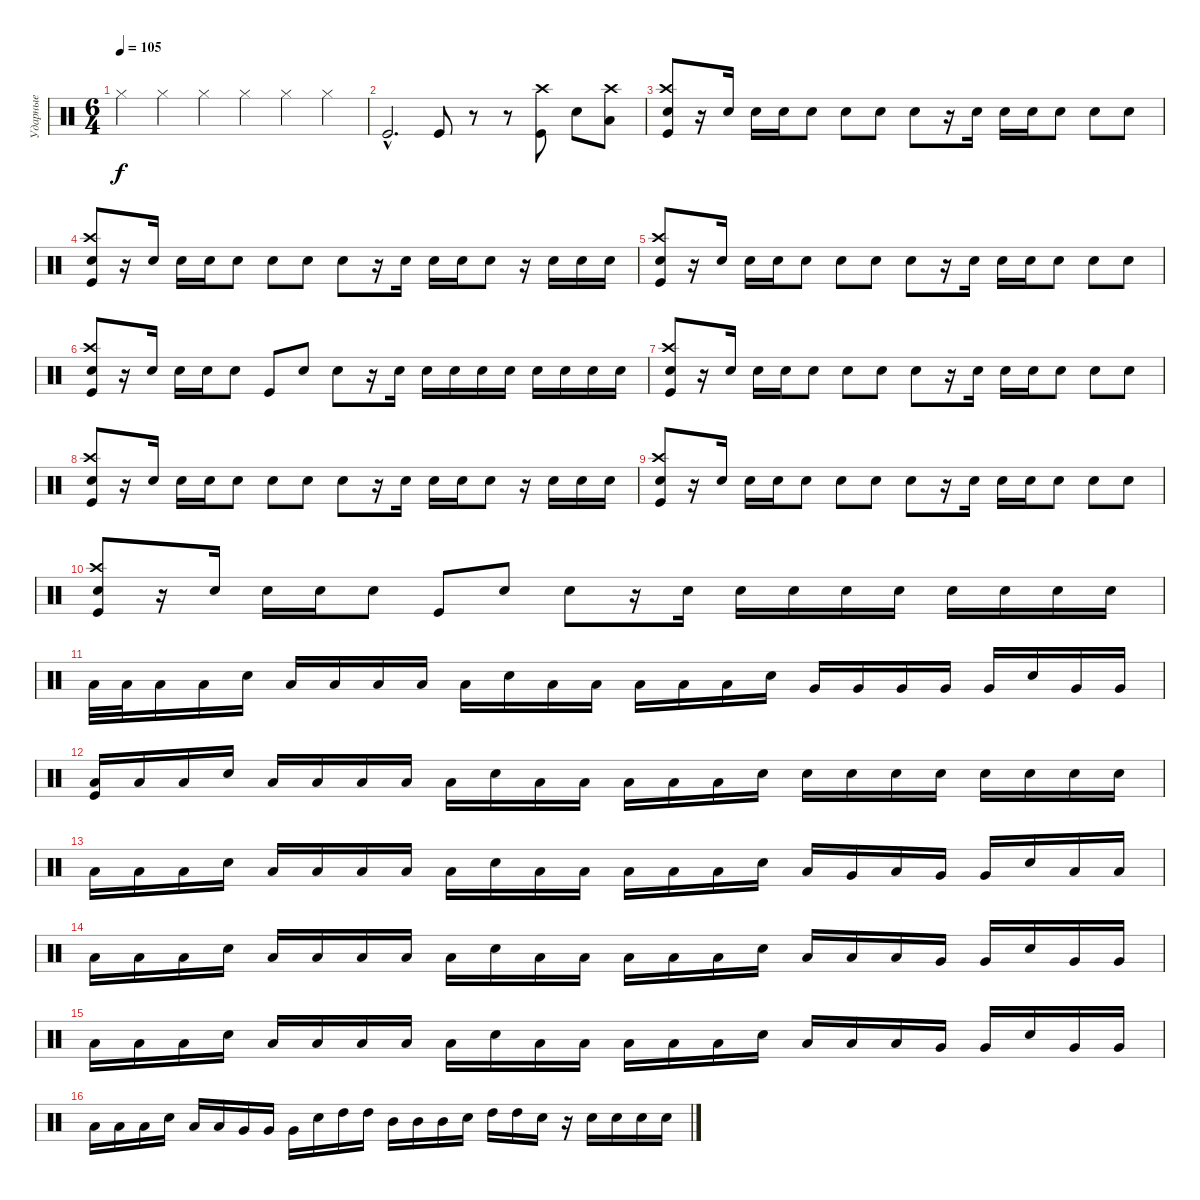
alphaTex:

\track ("Ударные" "Ударные") {instrument percussion}
\staff {score}
\articulation defaults
\ts (6 4)
\tempo 105
\clef neutral
\ks c "Hi-Hat (closed)".4{dy f} "Hi-Hat (closed)".4 "Hi-Hat (closed)".4 "Hi-Hat (closed)".4 "Hi-Hat (closed)".4 "Hi-Hat (closed)".4
|
"Kick (hit)"{hac}.2{d} "Kick (hit)".8 r.8 r.8 ("Crash high (hit)" "Kick (hit)").8 "Electric Snare (hit)".8 ("Crash high (hit)" "Low Tom (hit)").8 |
("Crash high (hit)" "Electric Snare (hit)" "Kick (hit)").8 r.16 "Electric Snare (hit)".16 "Electric Snare (hit)".16 "Electric Snare (hit)".16 "Electric Snare (hit)".8 "Electric Snare (hit)".8 "Electric Snare (hit)".8 "Electric Snare (hit)".8 r.16 "Electric Snare (hit)".16 "Electric Snare (hit)".16 "Electric Snare (hit)".16 "Electric Snare (hit)".8 "Electric Snare (hit)".8 "Electric Snare (hit)".8 |
("Crash high (hit)" "Electric Snare (hit)" "Kick (hit)").8 r.16 "Electric Snare (hit)".16 "Electric Snare (hit)".16 "Electric Snare (hit)".16 "Electric Snare (hit)".8 "Electric Snare (hit)".8 "Electric Snare (hit)".8 "Electric Snare (hit)".8 r.16 "Electric Snare (hit)".16 "Electric Snare (hit)".16 "Electric Snare (hit)".16 "Electric Snare (hit)".8 r.16 "Electric Snare (hit)".16 "Electric Snare (hit)".16 "Electric Snare (hit)".16 |
("Crash high (hit)" "Electric Snare (hit)" "Kick (hit)").8 r.16 "Electric Snare (hit)".16 "Electric Snare (hit)".16 "Electric Snare (hit)".16 "Electric Snare (hit)".8 "Electric Snare (hit)".8 "Electric Snare (hit)".8 "Electric Snare (hit)".8 r.16 "Electric Snare (hit)".16 "Electric Snare (hit)".16 "Electric Snare (hit)".16 "Electric Snare (hit)".8 "Electric Snare (hit)".8 "Electric Snare (hit)".8 |
("Crash high (hit)" "Electric Snare (hit)" "Kick (hit)").8 r.16 "Electric Snare (hit)".16 "Electric Snare (hit)".16 "Electric Snare (hit)".16 "Electric Snare (hit)".8 "Kick (hit)".8 "Electric Snare (hit)".8 "Electric Snare (hit)".8 r.16 "Electric Snare (hit)".16 "Electric Snare (hit)".16 "Electric Snare (hit)".16 "Electric Snare (hit)".16 "Electric Snare (hit)".16 "Electric Snare (hit)".16 "Electric Snare (hit)".16 "Electric Snare (hit)".16 "Electric Snare (hit)".16 |
("Crash high (hit)" "Electric Snare (hit)" "Kick (hit)").8 r.16 "Electric Snare (hit)".16 "Electric Snare (hit)".16 "Electric Snare (hit)".16 "Electric Snare (hit)".8 "Electric Snare (hit)".8 "Electric Snare (hit)".8 "Electric Snare (hit)".8 r.16 "Electric Snare (hit)".16 "Electric Snare (hit)".16 "Electric Snare (hit)".16 "Electric Snare (hit)".8 "Electric Snare (hit)".8 "Electric Snare (hit)".8 |
("Crash high (hit)" "Electric Snare (hit)" "Kick (hit)").8 r.16 "Electric Snare (hit)".16 "Electric Snare (hit)".16 "Electric Snare (hit)".16 "Electric Snare (hit)".8 "Electric Snare (hit)".8 "Electric Snare (hit)".8 "Electric Snare (hit)".8 r.16 "Electric Snare (hit)".16 "Electric Snare (hit)".16 "Electric Snare (hit)".16 "Electric Snare (hit)".8 r.16 "Electric Snare (hit)".16 "Electric Snare (hit)".16 "Electric Snare (hit)".16 |
("Crash high (hit)" "Electric Snare (hit)" "Kick (hit)").8 r.16 "Electric Snare (hit)".16 "Electric Snare (hit)".16 "Electric Snare (hit)".16 "Electric Snare (hit)".8 "Electric Snare (hit)".8 "Electric Snare (hit)".8 "Electric Snare (hit)".8 r.16 "Electric Snare (hit)".16 "Electric Snare (hit)".16 "Electric Snare (hit)".16 "Electric Snare (hit)".8 "Electric Snare (hit)".8 "Electric Snare (hit)".8 |
("Crash high (hit)" "Electric Snare (hit)" "Kick (hit)").8 r.16 "Electric Snare (hit)".16 "Electric Snare (hit)".16 "Electric Snare (hit)".16 "Electric Snare (hit)".8 "Kick (hit)".8 "Electric Snare (hit)".8 "Electric Snare (hit)".8 r.16 "Electric Snare (hit)".16 "Electric Snare (hit)".16 "Electric Snare (hit)".16 "Electric Snare (hit)".16 "Electric Snare (hit)".16 "Electric Snare (hit)".16 "Electric Snare (hit)".16 "Electric Snare (hit)".16 "Electric Snare (hit)".16 |
"Low Tom (hit)".32 "Low Tom (hit)".32 "Low Tom (hit)".16 "Low Tom (hit)".16 "Electric Snare (hit)".16 "Low Tom (hit)".16 "Low Tom (hit)".16 "Low Tom (hit)".16 "Low Tom (hit)".16 "Low Tom (hit)".16 "Electric Snare (hit)".16 "Low Tom (hit)".16 "Low Tom (hit)".16 "Low Tom (hit)".16 "Low Tom (hit)".16 "Low Tom (hit)".16 "Electric Snare (hit)".16 "Very Low Tom (hit)".16 "Very Low Tom (hit)".16 "Very Low Tom (hit)".16 "Very Low Tom (hit)".16 "Very Low Tom (hit)".16 "Electric Snare (hit)".16 "Very Low Tom (hit)".16 "Very Low Tom (hit)".16 |
("Low Tom (hit)" "Kick (hit)").16 "Low Tom (hit)".16 "Low Tom (hit)".16 "Electric Snare (hit)".16 "Low Tom (hit)".16 "Low Tom (hit)".16 "Low Tom (hit)".16 "Low Tom (hit)".16 "Low Tom (hit)".16 "Electric Snare (hit)".16 "Low Tom (hit)".16 "Low Tom (hit)".16 "Low Tom (hit)".16 "Low Tom (hit)".16 "Low Tom (hit)".16 "Electric Snare (hit)".16 "Electric Snare (hit)".16 "Electric Snare (hit)".16 "Electric Snare (hit)".16 "Electric Snare (hit)".16 "Electric Snare (hit)".16 "Electric Snare (hit)".16 "Electric Snare (hit)".16 "Electric Snare (hit)".16 |
"Low Tom (hit)".16 "Low Tom (hit)".16 "Low Tom (hit)".16 "Electric Snare (hit)".16 "Low Tom (hit)".16 "Low Tom (hit)".16 "Low Tom (hit)".16 "Low Tom (hit)".16 "Low Tom (hit)".16 "Electric Snare (hit)".16 "Low Tom (hit)".16 "Low Tom (hit)".16 "Low Tom (hit)".16 "Low Tom (hit)".16 "Low Tom (hit)".16 "Electric Snare (hit)".16 "Low Tom (hit)".16 "Very Low Tom (hit)".16 "Low Tom (hit)".16 "Very Low Tom (hit)".16 "Very Low Tom (hit)".16 "Electric Snare (hit)".16 "Low Tom (hit)".16 "Low Tom (hit)".16 |
"Low Tom (hit)".16 "Low Tom (hit)".16 "Low Tom (hit)".16 "Electric Snare (hit)".16 "Low Tom (hit)".16 "Low Tom (hit)".16 "Low Tom (hit)".16 "Low Tom (hit)".16 "Low Tom (hit)".16 "Electric Snare (hit)".16 "Low Tom (hit)".16 "Low Tom (hit)".16 "Low Tom (hit)".16 "Low Tom (hit)".16 "Low Tom (hit)".16 "Electric Snare (hit)".16 "Low Tom (hit)".16 "Low Tom (hit)".16 "Low Tom (hit)".16 "Very Low Tom (hit)".16 "Very Low Tom (hit)".16 "Electric Snare (hit)".16 "Very Low Tom (hit)".16 "Very Low Tom (hit)".16 |
"Low Tom (hit)".16 "Low Tom (hit)".16 "Low Tom (hit)".16 "Electric Snare (hit)".16 "Low Tom (hit)".16 "Low Tom (hit)".16 "Low Tom (hit)".16 "Low Tom (hit)".16 "Low Tom (hit)".16 "Electric Snare (hit)".16 "Low Tom (hit)".16 "Low Tom (hit)".16 "Low Tom (hit)".16 "Low Tom (hit)".16 "Low Tom (hit)".16 "Electric Snare (hit)".16 "Low Tom (hit)".16 "Low Tom (hit)".16 "Low Tom (hit)".16 "Very Low Tom (hit)".16 "Very Low Tom (hit)".16 "Electric Snare (hit)".16 "Very Low Tom (hit)".16 "Very Low Tom (hit)".16 |
"Low Tom (hit)".16 "Low Tom (hit)".16 "Low Tom (hit)".16 "Electric Snare (hit)".16 "Low Tom (hit)".16 "Low Tom (hit)".16 "Very Low Tom (hit)".16 "Very Low Tom (hit)".16 "Very Low Tom (hit)".16 "Electric Snare (hit)".16 "High Tom (hit)".16 "High Tom (hit)".16 "Mid Tom (hit)".16 "Mid Tom (hit)".16 "Mid Tom (hit)".16 "Electric Snare (hit)".16 "High Tom (hit)".16 "High Tom (hit)".16 "Electric Snare (hit)".16 r.16 "Electric Snare (hit)".16 "Electric Snare (hit)".16 "Electric Snare (hit)".16 "Electric Snare (hit)".16
